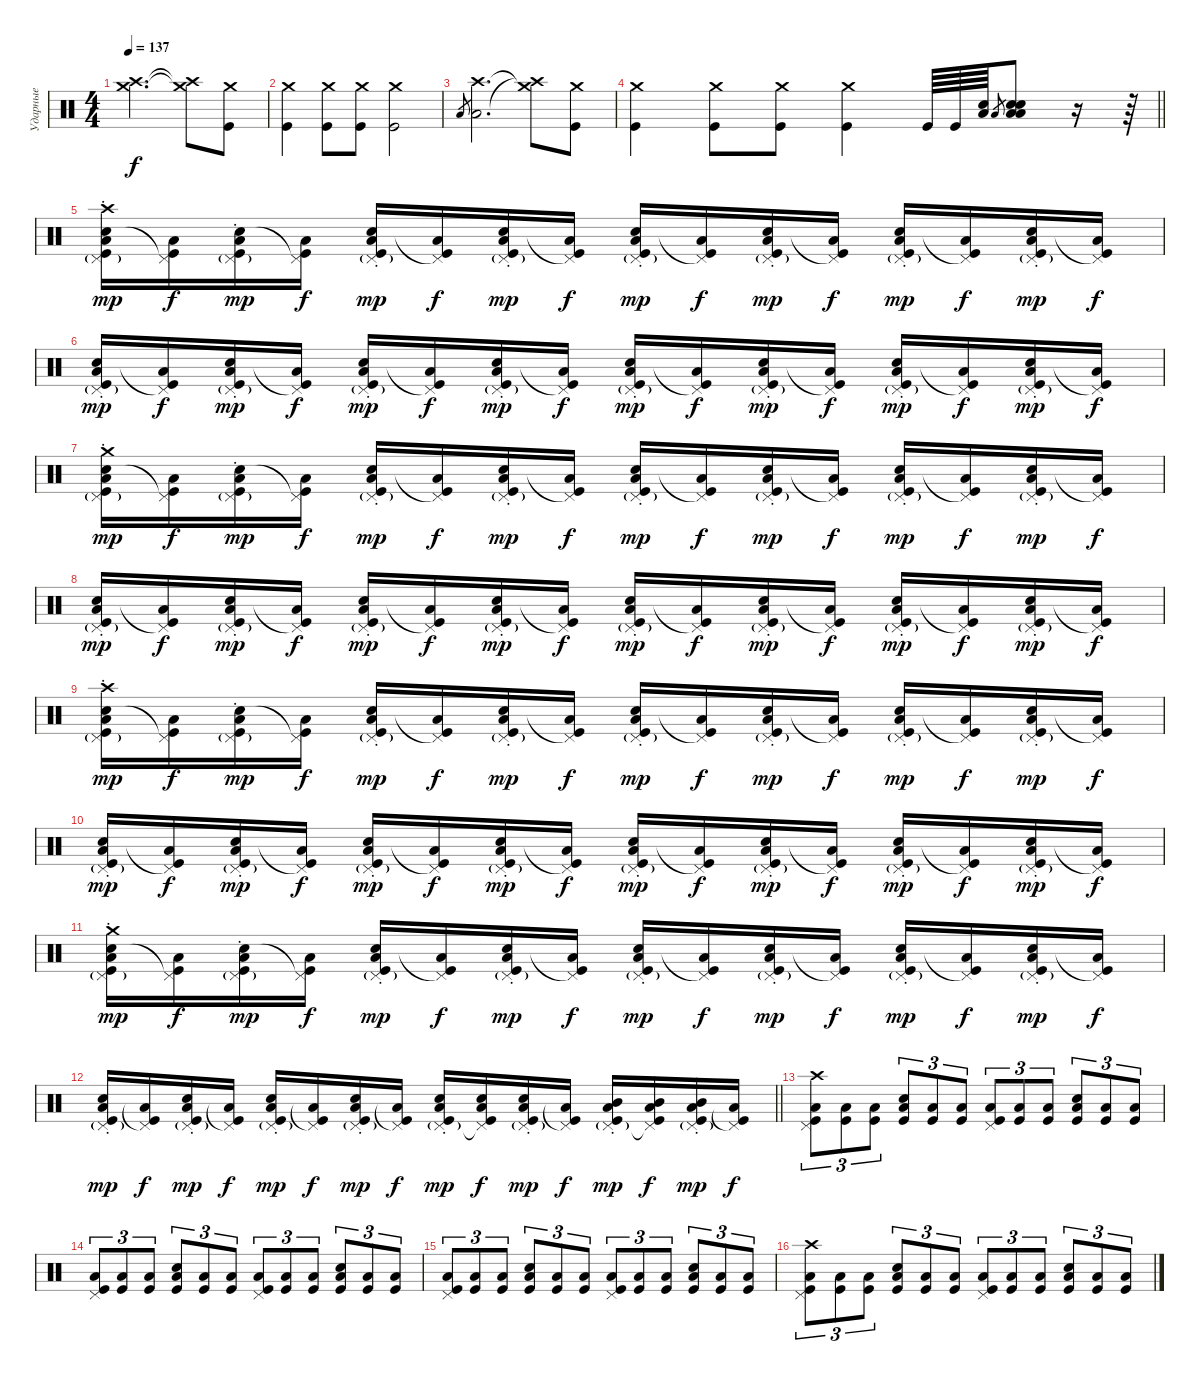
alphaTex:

\track ("Ударные" "Ударные") {instrument percussion}
\staff {score}
\articulation defaults
\ts (4 4)
\tempo 137
\clef neutral
\ks c
("Crash medium (hit)" "Crash high (hit)").2{d dy f} ("Crash medium (hit)"{t} "Crash high (hit)"{t}).8 ("Kick (hit)" "Crash medium (hit)").8 |
("Kick (hit)" "Crash medium (hit)").4 ("Kick (hit)" "Crash medium (hit)").8 ("Kick (hit)" "Crash medium (hit)").8 ("Kick (hit)" "Crash medium (hit)").2 |
"Low Floor Tom (hit)".8{gr} ("Crash high (hit)" "Low Floor Tom (hit)").2{d} ("Crash medium (hit)"{t} "Crash high (hit)"{t}).8 ("Kick (hit)" "Crash medium (hit)").8 |
\barLineRight lightlight
("Kick (hit)" "Crash medium (hit)").4 ("Kick (hit)" "Crash medium (hit)").8 ("Kick (hit)" "Crash medium (hit)").8 ("Kick (hit)" "Crash medium (hit)").4 "Kick (hit)".64 "Kick (hit)".64 ("Low Floor Tom (hit)" "Electric Snare (hit)").64 "Low Tom (hit)".8{gr} ("Low Floor Tom (hit)" "Snare (hit) 2" "Snare (hit) 2" "Low Floor Tom (hit)").8 r.16 r.64 |
("Kick (hit)" "Low Tom (hit)" "Electric Snare (hit)" "Crash high (hit)" "Pedal Hi-Hat (hit)"{g st}).16{dy mp} ("Kick (hit)" "Low Tom (hit)" "Pedal Hi-Hat (hit)"{t}).16{dy f} ("Kick (hit)" "Low Tom (hit)" "Electric Snare (hit)" "Pedal Hi-Hat (hit)"{g st}).16{dy mp} ("Kick (hit)" "Low Tom (hit)" "Pedal Hi-Hat (hit)"{t}).16{dy f} ("Kick (hit)" "Low Tom (hit)" "Electric Snare (hit)" "Pedal Hi-Hat (hit)"{g st}).16{dy mp} ("Kick (hit)" "Low Tom (hit)" "Pedal Hi-Hat (hit)"{t}).16{dy f} ("Kick (hit)" "Low Tom (hit)" "Electric Snare (hit)" "Pedal Hi-Hat (hit)"{g st}).16{dy mp} ("Kick (hit)" "Low Tom (hit)" "Pedal Hi-Hat (hit)"{t}).16{dy f} ("Kick (hit)" "Low Tom (hit)" "Electric Snare (hit)" "Pedal Hi-Hat (hit)"{g st}).16{dy mp} ("Kick (hit)" "Low Tom (hit)" "Pedal Hi-Hat (hit)"{t}).16{dy f} ("Kick (hit)" "Low Tom (hit)" "Electric Snare (hit)" "Pedal Hi-Hat (hit)"{g st}).16{dy mp} ("Kick (hit)" "Low Tom (hit)" "Pedal Hi-Hat (hit)"{t}).16{dy f} ("Kick (hit)" "Low Tom (hit)" "Electric Snare (hit)" "Pedal Hi-Hat (hit)"{g st}).16{dy mp} ("Kick (hit)" "Low Tom (hit)" "Pedal Hi-Hat (hit)"{t}).16{dy f} ("Kick (hit)" "Low Tom (hit)" "Electric Snare (hit)" "Pedal Hi-Hat (hit)"{g st}).16{dy mp} ("Kick (hit)" "Low Tom (hit)" "Pedal Hi-Hat (hit)"{t}).16{dy f} |
("Kick (hit)" "Low Tom (hit)" "Electric Snare (hit)" "Pedal Hi-Hat (hit)"{g st}).16{dy mp} ("Kick (hit)" "Low Tom (hit)" "Pedal Hi-Hat (hit)"{t}).16{dy f} ("Kick (hit)" "Low Tom (hit)" "Electric Snare (hit)" "Pedal Hi-Hat (hit)"{g st}).16{dy mp} ("Kick (hit)" "Low Tom (hit)" "Pedal Hi-Hat (hit)"{t}).16{dy f} ("Kick (hit)" "Low Tom (hit)" "Electric Snare (hit)" "Pedal Hi-Hat (hit)"{g st}).16{dy mp} ("Kick (hit)" "Low Tom (hit)" "Pedal Hi-Hat (hit)"{t}).16{dy f} ("Kick (hit)" "Low Tom (hit)" "Electric Snare (hit)" "Pedal Hi-Hat (hit)"{g st}).16{dy mp} ("Kick (hit)" "Low Tom (hit)" "Pedal Hi-Hat (hit)"{t}).16{dy f} ("Kick (hit)" "Low Tom (hit)" "Electric Snare (hit)" "Pedal Hi-Hat (hit)"{g st}).16{dy mp} ("Kick (hit)" "Low Tom (hit)" "Pedal Hi-Hat (hit)"{t}).16{dy f} ("Kick (hit)" "Low Tom (hit)" "Electric Snare (hit)" "Pedal Hi-Hat (hit)"{g st}).16{dy mp} ("Kick (hit)" "Low Tom (hit)" "Pedal Hi-Hat (hit)"{t}).16{dy f} ("Kick (hit)" "Low Tom (hit)" "Electric Snare (hit)" "Pedal Hi-Hat (hit)"{g st}).16{dy mp} ("Kick (hit)" "Low Tom (hit)" "Pedal Hi-Hat (hit)"{t}).16{dy f} ("Kick (hit)" "Low Tom (hit)" "Electric Snare (hit)" "Pedal Hi-Hat (hit)"{g st}).16{dy mp} ("Kick (hit)" "Low Tom (hit)" "Pedal Hi-Hat (hit)"{t}).16{dy f} |
("Kick (hit)" "Low Tom (hit)" "Electric Snare (hit)" "Crash medium (hit)" "Pedal Hi-Hat (hit)"{g st}).16{dy mp} ("Kick (hit)" "Low Tom (hit)" "Pedal Hi-Hat (hit)"{t}).16{dy f} ("Kick (hit)" "Low Tom (hit)" "Electric Snare (hit)" "Pedal Hi-Hat (hit)"{g st}).16{dy mp} ("Kick (hit)" "Low Tom (hit)" "Pedal Hi-Hat (hit)"{t}).16{dy f} ("Kick (hit)" "Low Tom (hit)" "Electric Snare (hit)" "Pedal Hi-Hat (hit)"{g st}).16{dy mp} ("Kick (hit)" "Low Tom (hit)" "Pedal Hi-Hat (hit)"{t}).16{dy f} ("Kick (hit)" "Low Tom (hit)" "Electric Snare (hit)" "Pedal Hi-Hat (hit)"{g st}).16{dy mp} ("Kick (hit)" "Low Tom (hit)" "Pedal Hi-Hat (hit)"{t}).16{dy f} ("Kick (hit)" "Low Tom (hit)" "Electric Snare (hit)" "Pedal Hi-Hat (hit)"{g st}).16{dy mp} ("Kick (hit)" "Low Tom (hit)" "Pedal Hi-Hat (hit)"{t}).16{dy f} ("Kick (hit)" "Low Tom (hit)" "Electric Snare (hit)" "Pedal Hi-Hat (hit)"{g st}).16{dy mp} ("Kick (hit)" "Low Tom (hit)" "Pedal Hi-Hat (hit)"{t}).16{dy f} ("Kick (hit)" "Low Tom (hit)" "Electric Snare (hit)" "Pedal Hi-Hat (hit)"{g st}).16{dy mp} ("Kick (hit)" "Low Tom (hit)" "Pedal Hi-Hat (hit)"{t}).16{dy f} ("Kick (hit)" "Low Tom (hit)" "Electric Snare (hit)" "Pedal Hi-Hat (hit)"{g st}).16{dy mp} ("Kick (hit)" "Low Tom (hit)" "Pedal Hi-Hat (hit)"{t}).16{dy f} |
("Kick (hit)" "Low Tom (hit)" "Electric Snare (hit)" "Pedal Hi-Hat (hit)"{g st}).16{dy mp} ("Kick (hit)" "Low Tom (hit)" "Pedal Hi-Hat (hit)"{t}).16{dy f} ("Kick (hit)" "Low Tom (hit)" "Electric Snare (hit)" "Pedal Hi-Hat (hit)"{g st}).16{dy mp} ("Kick (hit)" "Low Tom (hit)" "Pedal Hi-Hat (hit)"{t}).16{dy f} ("Kick (hit)" "Low Tom (hit)" "Electric Snare (hit)" "Pedal Hi-Hat (hit)"{g st}).16{dy mp} ("Kick (hit)" "Low Tom (hit)" "Pedal Hi-Hat (hit)"{t}).16{dy f} ("Kick (hit)" "Low Tom (hit)" "Electric Snare (hit)" "Pedal Hi-Hat (hit)"{g st}).16{dy mp} ("Kick (hit)" "Low Tom (hit)" "Pedal Hi-Hat (hit)"{t}).16{dy f} ("Kick (hit)" "Low Tom (hit)" "Electric Snare (hit)" "Pedal Hi-Hat (hit)"{g st}).16{dy mp} ("Kick (hit)" "Low Tom (hit)" "Pedal Hi-Hat (hit)"{t}).16{dy f} ("Kick (hit)" "Low Tom (hit)" "Electric Snare (hit)" "Pedal Hi-Hat (hit)"{g st}).16{dy mp} ("Kick (hit)" "Low Tom (hit)" "Pedal Hi-Hat (hit)"{t}).16{dy f} ("Kick (hit)" "Low Tom (hit)" "Electric Snare (hit)" "Pedal Hi-Hat (hit)"{g st}).16{dy mp} ("Kick (hit)" "Low Tom (hit)" "Pedal Hi-Hat (hit)"{t}).16{dy f} ("Kick (hit)" "Low Tom (hit)" "Electric Snare (hit)" "Pedal Hi-Hat (hit)"{g st}).16{dy mp} ("Kick (hit)" "Low Tom (hit)" "Pedal Hi-Hat (hit)"{t}).16{dy f} |
("Kick (hit)" "Low Tom (hit)" "Electric Snare (hit)" "Crash high (hit)" "Pedal Hi-Hat (hit)"{g st}).16{dy mp} ("Kick (hit)" "Low Tom (hit)" "Pedal Hi-Hat (hit)"{t}).16{dy f} ("Kick (hit)" "Low Tom (hit)" "Electric Snare (hit)" "Pedal Hi-Hat (hit)"{g st}).16{dy mp} ("Kick (hit)" "Low Tom (hit)" "Pedal Hi-Hat (hit)"{t}).16{dy f} ("Kick (hit)" "Low Tom (hit)" "Electric Snare (hit)" "Pedal Hi-Hat (hit)"{g st}).16{dy mp} ("Kick (hit)" "Low Tom (hit)" "Pedal Hi-Hat (hit)"{t}).16{dy f} ("Kick (hit)" "Low Tom (hit)" "Electric Snare (hit)" "Pedal Hi-Hat (hit)"{g st}).16{dy mp} ("Kick (hit)" "Low Tom (hit)" "Pedal Hi-Hat (hit)"{t}).16{dy f} ("Kick (hit)" "Low Tom (hit)" "Electric Snare (hit)" "Pedal Hi-Hat (hit)"{g st}).16{dy mp} ("Kick (hit)" "Low Tom (hit)" "Pedal Hi-Hat (hit)"{t}).16{dy f} ("Kick (hit)" "Low Tom (hit)" "Electric Snare (hit)" "Pedal Hi-Hat (hit)"{g st}).16{dy mp} ("Kick (hit)" "Low Tom (hit)" "Pedal Hi-Hat (hit)"{t}).16{dy f} ("Kick (hit)" "Low Tom (hit)" "Electric Snare (hit)" "Pedal Hi-Hat (hit)"{g st}).16{dy mp} ("Kick (hit)" "Low Tom (hit)" "Pedal Hi-Hat (hit)"{t}).16{dy f} ("Kick (hit)" "Low Tom (hit)" "Electric Snare (hit)" "Pedal Hi-Hat (hit)"{g st}).16{dy mp} ("Kick (hit)" "Low Tom (hit)" "Pedal Hi-Hat (hit)"{t}).16{dy f} |
("Kick (hit)" "Low Tom (hit)" "Electric Snare (hit)" "Pedal Hi-Hat (hit)"{g st}).16{dy mp} ("Kick (hit)" "Low Tom (hit)" "Pedal Hi-Hat (hit)"{t}).16{dy f} ("Kick (hit)" "Low Tom (hit)" "Electric Snare (hit)" "Pedal Hi-Hat (hit)"{g st}).16{dy mp} ("Kick (hit)" "Low Tom (hit)" "Pedal Hi-Hat (hit)"{t}).16{dy f} ("Kick (hit)" "Low Tom (hit)" "Electric Snare (hit)" "Pedal Hi-Hat (hit)"{g st}).16{dy mp} ("Kick (hit)" "Low Tom (hit)" "Pedal Hi-Hat (hit)"{t}).16{dy f} ("Kick (hit)" "Low Tom (hit)" "Electric Snare (hit)" "Pedal Hi-Hat (hit)"{g st}).16{dy mp} ("Kick (hit)" "Low Tom (hit)" "Pedal Hi-Hat (hit)"{t}).16{dy f} ("Kick (hit)" "Low Tom (hit)" "Electric Snare (hit)" "Pedal Hi-Hat (hit)"{g st}).16{dy mp} ("Kick (hit)" "Low Tom (hit)" "Pedal Hi-Hat (hit)"{t}).16{dy f} ("Kick (hit)" "Low Tom (hit)" "Electric Snare (hit)" "Pedal Hi-Hat (hit)"{g st}).16{dy mp} ("Kick (hit)" "Low Tom (hit)" "Pedal Hi-Hat (hit)"{t}).16{dy f} ("Kick (hit)" "Low Tom (hit)" "Electric Snare (hit)" "Pedal Hi-Hat (hit)"{g st}).16{dy mp} ("Kick (hit)" "Low Tom (hit)" "Pedal Hi-Hat (hit)"{t}).16{dy f} ("Kick (hit)" "Low Tom (hit)" "Electric Snare (hit)" "Pedal Hi-Hat (hit)"{g st}).16{dy mp} ("Kick (hit)" "Low Tom (hit)" "Pedal Hi-Hat (hit)"{t}).16{dy f} |
("Kick (hit)" "Low Tom (hit)" "Electric Snare (hit)" "Crash medium (hit)" "Pedal Hi-Hat (hit)"{g st}).16{dy mp} ("Kick (hit)" "Low Tom (hit)" "Pedal Hi-Hat (hit)"{t}).16{dy f} ("Kick (hit)" "Low Tom (hit)" "Electric Snare (hit)" "Pedal Hi-Hat (hit)"{g st}).16{dy mp} ("Kick (hit)" "Low Tom (hit)" "Pedal Hi-Hat (hit)"{t}).16{dy f} ("Kick (hit)" "Low Tom (hit)" "Electric Snare (hit)" "Pedal Hi-Hat (hit)"{g st}).16{dy mp} ("Kick (hit)" "Low Tom (hit)" "Pedal Hi-Hat (hit)"{t}).16{dy f} ("Kick (hit)" "Low Tom (hit)" "Electric Snare (hit)" "Pedal Hi-Hat (hit)"{g st}).16{dy mp} ("Kick (hit)" "Low Tom (hit)" "Pedal Hi-Hat (hit)"{t}).16{dy f} ("Kick (hit)" "Low Tom (hit)" "Electric Snare (hit)" "Pedal Hi-Hat (hit)"{g st}).16{dy mp} ("Kick (hit)" "Low Tom (hit)" "Pedal Hi-Hat (hit)"{t}).16{dy f} ("Kick (hit)" "Low Tom (hit)" "Electric Snare (hit)" "Pedal Hi-Hat (hit)"{g st}).16{dy mp} ("Kick (hit)" "Low Tom (hit)" "Pedal Hi-Hat (hit)"{t}).16{dy f} ("Kick (hit)" "Low Tom (hit)" "Electric Snare (hit)" "Pedal Hi-Hat (hit)"{g st}).16{dy mp} ("Kick (hit)" "Low Tom (hit)" "Pedal Hi-Hat (hit)"{t}).16{dy f} ("Kick (hit)" "Low Tom (hit)" "Electric Snare (hit)" "Pedal Hi-Hat (hit)"{g st}).16{dy mp} ("Kick (hit)" "Low Tom (hit)" "Pedal Hi-Hat (hit)"{t}).16{dy f} |
\barLineRight lightlight
("Kick (hit)" "Low Tom (hit)" "Electric Snare (hit)" "Pedal Hi-Hat (hit)"{g st}).16{dy mp} ("Kick (hit)" "Low Tom (hit)" "Pedal Hi-Hat (hit)"{t}).16{dy f} ("Kick (hit)" "Low Tom (hit)" "Electric Snare (hit)" "Pedal Hi-Hat (hit)"{g st}).16{dy mp} ("Kick (hit)" "Low Tom (hit)" "Pedal Hi-Hat (hit)"{t}).16{dy f} ("Kick (hit)" "Low Tom (hit)" "Electric Snare (hit)" "Pedal Hi-Hat (hit)"{g st}).16{dy mp} ("Kick (hit)" "Low Tom (hit)" "Pedal Hi-Hat (hit)"{t}).16{dy f} ("Kick (hit)" "Low Tom (hit)" "Electric Snare (hit)" "Pedal Hi-Hat (hit)"{g st}).16{dy mp} ("Kick (hit)" "Low Tom (hit)" "Pedal Hi-Hat (hit)"{t}).16{dy f} ("Kick (hit)" "Low Tom (hit)" "Electric Snare (hit)" "Pedal Hi-Hat (hit)"{g st}).16{dy mp} ("Kick (hit)" "Low Tom (hit)" "Electric Snare (hit)" "Pedal Hi-Hat (hit)"{t}).16{dy f} ("Kick (hit)" "Low Tom (hit)" "Electric Snare (hit)" "Pedal Hi-Hat (hit)"{g st}).16{dy mp} ("Kick (hit)" "Low Tom (hit)" "Pedal Hi-Hat (hit)"{t}).16{dy f} ("Kick (hit)" "Low Tom (hit)" "Mid Tom (hit)" "Pedal Hi-Hat (hit)"{g st}).16{dy mp} ("Kick (hit)" "Low Tom (hit)" "Mid Tom (hit)" "Pedal Hi-Hat (hit)"{t}).16{dy f} ("Kick (hit)" "Low Tom (hit)" "Mid Tom (hit)" "Pedal Hi-Hat (hit)"{g st}).16{dy mp} ("Kick (hit)" "Low Tom (hit)" "Pedal Hi-Hat (hit)"{t}).16{dy f} |
("Kick (hit)" "Low Tom (hit)" "Crash high (hit)" "Pedal Hi-Hat (hit)").8{tu (3 2)} ("Kick (hit)" "Low Tom (hit)").8{tu (3 2)} ("Kick (hit)" "Low Tom (hit)").8{tu (3 2)} ("Kick (hit)" "Low Tom (hit)" "Electric Snare (hit)").8{tu (3 2)} ("Kick (hit)" "Low Tom (hit)").8{tu (3 2)} ("Kick (hit)" "Low Tom (hit)").8{tu (3 2)} ("Kick (hit)" "Low Tom (hit)" "Pedal Hi-Hat (hit)").8{tu (3 2)} ("Kick (hit)" "Low Tom (hit)").8{tu (3 2)} ("Kick (hit)" "Low Tom (hit)").8{tu (3 2)} ("Kick (hit)" "Low Tom (hit)" "Electric Snare (hit)").8{tu (3 2)} ("Kick (hit)" "Low Tom (hit)").8{tu (3 2)} ("Kick (hit)" "Low Tom (hit)").8{tu (3 2)} |
("Kick (hit)" "Low Tom (hit)" "Pedal Hi-Hat (hit)").8{tu (3 2)} ("Kick (hit)" "Low Tom (hit)").8{tu (3 2)} ("Kick (hit)" "Low Tom (hit)").8{tu (3 2)} ("Kick (hit)" "Low Tom (hit)" "Electric Snare (hit)").8{tu (3 2)} ("Kick (hit)" "Low Tom (hit)").8{tu (3 2)} ("Kick (hit)" "Low Tom (hit)").8{tu (3 2)} ("Kick (hit)" "Low Tom (hit)" "Pedal Hi-Hat (hit)").8{tu (3 2)} ("Kick (hit)" "Low Tom (hit)").8{tu (3 2)} ("Kick (hit)" "Low Tom (hit)").8{tu (3 2)} ("Kick (hit)" "Low Tom (hit)" "Electric Snare (hit)").8{tu (3 2)} ("Kick (hit)" "Low Tom (hit)").8{tu (3 2)} ("Kick (hit)" "Low Tom (hit)").8{tu (3 2)} |
("Kick (hit)" "Low Tom (hit)" "Pedal Hi-Hat (hit)").8{tu (3 2)} ("Kick (hit)" "Low Tom (hit)").8{tu (3 2)} ("Kick (hit)" "Low Tom (hit)").8{tu (3 2)} ("Kick (hit)" "Low Tom (hit)" "Electric Snare (hit)").8{tu (3 2)} ("Kick (hit)" "Low Tom (hit)").8{tu (3 2)} ("Kick (hit)" "Low Tom (hit)").8{tu (3 2)} ("Kick (hit)" "Low Tom (hit)" "Pedal Hi-Hat (hit)").8{tu (3 2)} ("Kick (hit)" "Low Tom (hit)").8{tu (3 2)} ("Kick (hit)" "Low Tom (hit)").8{tu (3 2)} ("Kick (hit)" "Low Tom (hit)" "Electric Snare (hit)").8{tu (3 2)} ("Kick (hit)" "Low Tom (hit)").8{tu (3 2)} ("Kick (hit)" "Low Tom (hit)").8{tu (3 2)} |
("Kick (hit)" "Low Tom (hit)" "Crash high (hit)" "Pedal Hi-Hat (hit)").8{tu (3 2)} ("Kick (hit)" "Low Tom (hit)").8{tu (3 2)} ("Kick (hit)" "Low Tom (hit)").8{tu (3 2)} ("Kick (hit)" "Low Tom (hit)" "Electric Snare (hit)").8{tu (3 2)} ("Kick (hit)" "Low Tom (hit)").8{tu (3 2)} ("Kick (hit)" "Low Tom (hit)").8{tu (3 2)} ("Kick (hit)" "Low Tom (hit)" "Pedal Hi-Hat (hit)").8{tu (3 2)} ("Kick (hit)" "Low Tom (hit)").8{tu (3 2)} ("Kick (hit)" "Low Tom (hit)").8{tu (3 2)} ("Kick (hit)" "Low Tom (hit)" "Electric Snare (hit)").8{tu (3 2)} ("Kick (hit)" "Low Tom (hit)").8{tu (3 2)} ("Kick (hit)" "Low Tom (hit)").8{tu (3 2)}
